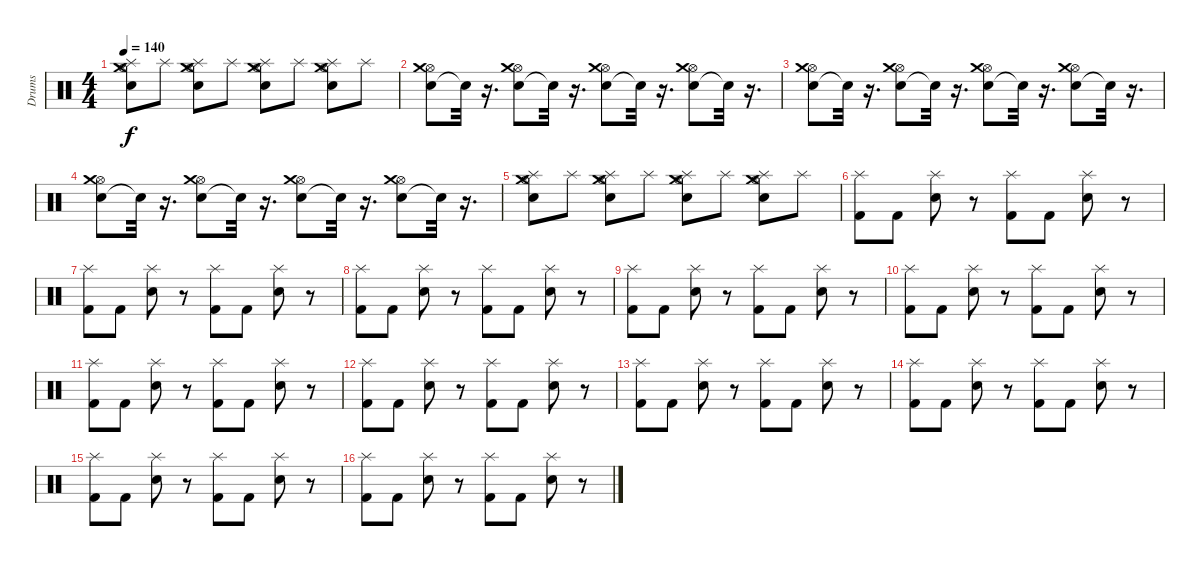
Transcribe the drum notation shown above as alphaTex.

\track ("Drums" "Drums") {instrument percussion}
\staff {score}
\articulation defaults
\ts (4 4)
\tempo 140
\clef neutral
\ks c
("Snare (hit) 2" "Hi-Hat (open)" "Crash medium (hit)" "Splash (hit)").8{dy f} "Splash (hit)".8 ("Snare (hit) 2" "Hi-Hat (open)" "Crash medium (hit)" "Splash (hit)").8 "Splash (hit)".8 ("Snare (hit) 2" "Hi-Hat (open)" "Crash medium (hit)" "Splash (hit)").8 "Splash (hit)".8 ("Snare (hit) 2" "Hi-Hat (open)" "Crash medium (hit)" "Splash (hit)").8 "Splash (hit)".8 |
("Snare (hit) 2" "Hi-Hat (open)" "Crash medium (hit)").8 "Snare (hit)"{t}.32 r.16{d} ("Snare (hit) 2" "Hi-Hat (open)" "Crash medium (hit)").8 "Snare (hit)"{t}.32 r.16{d} ("Snare (hit) 2" "Hi-Hat (open)" "Crash medium (hit)").8 "Snare (hit)"{t}.32 r.16{d} ("Snare (hit) 2" "Hi-Hat (open)" "Crash medium (hit)").8 "Snare (hit)"{t}.32 r.16{d} |
("Snare (hit) 2" "Hi-Hat (open)" "Crash medium (hit)").8 "Snare (hit)"{t}.32 r.16{d} ("Snare (hit) 2" "Hi-Hat (open)" "Crash medium (hit)").8 "Snare (hit)"{t}.32 r.16{d} ("Snare (hit) 2" "Hi-Hat (open)" "Crash medium (hit)").8 "Snare (hit)"{t}.32 r.16{d} ("Snare (hit) 2" "Hi-Hat (open)" "Crash medium (hit)").8 "Snare (hit)"{t}.32 r.16{d} |
("Snare (hit) 2" "Hi-Hat (open)" "Crash medium (hit)").8 "Snare (hit)"{t}.32 r.16{d} ("Snare (hit) 2" "Hi-Hat (open)" "Crash medium (hit)").8 "Snare (hit)"{t}.32 r.16{d} ("Snare (hit) 2" "Hi-Hat (open)" "Crash medium (hit)").8 "Snare (hit)"{t}.32 r.16{d} ("Snare (hit) 2" "Hi-Hat (open)" "Crash medium (hit)").8 "Snare (hit)"{t}.32 r.16{d} |
("Snare (hit) 2" "Hi-Hat (open)" "Crash medium (hit)" "Splash (hit)").8 "Splash (hit)".8 ("Snare (hit) 2" "Hi-Hat (open)" "Crash medium (hit)" "Splash (hit)").8 "Splash (hit)".8 ("Snare (hit) 2" "Hi-Hat (open)" "Crash medium (hit)" "Splash (hit)").8 "Splash (hit)".8 ("Snare (hit) 2" "Hi-Hat (open)" "Crash medium (hit)" "Splash (hit)").8 "Splash (hit)".8 |
("Splash (hit)" "Kick (hit) 2").8 "Kick (hit) 2".8 ("Splash (hit)" "Snare (hit) 2").8 r.8 ("Splash (hit)" "Kick (hit) 2").8 "Kick (hit) 2".8 ("Splash (hit)" "Snare (hit) 2").8 r.8 |
("Splash (hit)" "Kick (hit) 2").8 "Kick (hit) 2".8 ("Splash (hit)" "Snare (hit) 2").8 r.8 ("Splash (hit)" "Kick (hit) 2").8 "Kick (hit) 2".8 ("Splash (hit)" "Snare (hit) 2").8 r.8 |
("Splash (hit)" "Kick (hit) 2").8 "Kick (hit) 2".8 ("Splash (hit)" "Snare (hit) 2").8 r.8 ("Splash (hit)" "Kick (hit) 2").8 "Kick (hit) 2".8 ("Splash (hit)" "Snare (hit) 2").8 r.8 |
("Splash (hit)" "Kick (hit) 2").8 "Kick (hit) 2".8 ("Splash (hit)" "Snare (hit) 2").8 r.8 ("Splash (hit)" "Kick (hit) 2").8 "Kick (hit) 2".8 ("Splash (hit)" "Snare (hit) 2").8 r.8 |
("Splash (hit)" "Kick (hit) 2").8 "Kick (hit) 2".8 ("Splash (hit)" "Snare (hit) 2").8 r.8 ("Splash (hit)" "Kick (hit) 2").8 "Kick (hit) 2".8 ("Splash (hit)" "Snare (hit) 2").8 r.8 |
("Splash (hit)" "Kick (hit) 2").8 "Kick (hit) 2".8 ("Splash (hit)" "Snare (hit) 2").8 r.8 ("Splash (hit)" "Kick (hit) 2").8 "Kick (hit) 2".8 ("Splash (hit)" "Snare (hit) 2").8 r.8 |
("Splash (hit)" "Kick (hit) 2").8 "Kick (hit) 2".8 ("Splash (hit)" "Snare (hit) 2").8 r.8 ("Splash (hit)" "Kick (hit) 2").8 "Kick (hit) 2".8 ("Splash (hit)" "Snare (hit) 2").8 r.8 |
("Splash (hit)" "Kick (hit) 2").8 "Kick (hit) 2".8 ("Splash (hit)" "Snare (hit) 2").8 r.8 ("Splash (hit)" "Kick (hit) 2").8 "Kick (hit) 2".8 ("Splash (hit)" "Snare (hit) 2").8 r.8 |
("Splash (hit)" "Kick (hit) 2").8 "Kick (hit) 2".8 ("Splash (hit)" "Snare (hit) 2").8 r.8 ("Splash (hit)" "Kick (hit) 2").8 "Kick (hit) 2".8 ("Splash (hit)" "Snare (hit) 2").8 r.8 |
("Splash (hit)" "Kick (hit) 2").8 "Kick (hit) 2".8 ("Splash (hit)" "Snare (hit) 2").8 r.8 ("Splash (hit)" "Kick (hit) 2").8 "Kick (hit) 2".8 ("Splash (hit)" "Snare (hit) 2").8 r.8 |
("Splash (hit)" "Kick (hit) 2").8 "Kick (hit) 2".8 ("Splash (hit)" "Snare (hit) 2").8 r.8 ("Splash (hit)" "Kick (hit) 2").8 "Kick (hit) 2".8 ("Splash (hit)" "Snare (hit) 2").8 r.8
